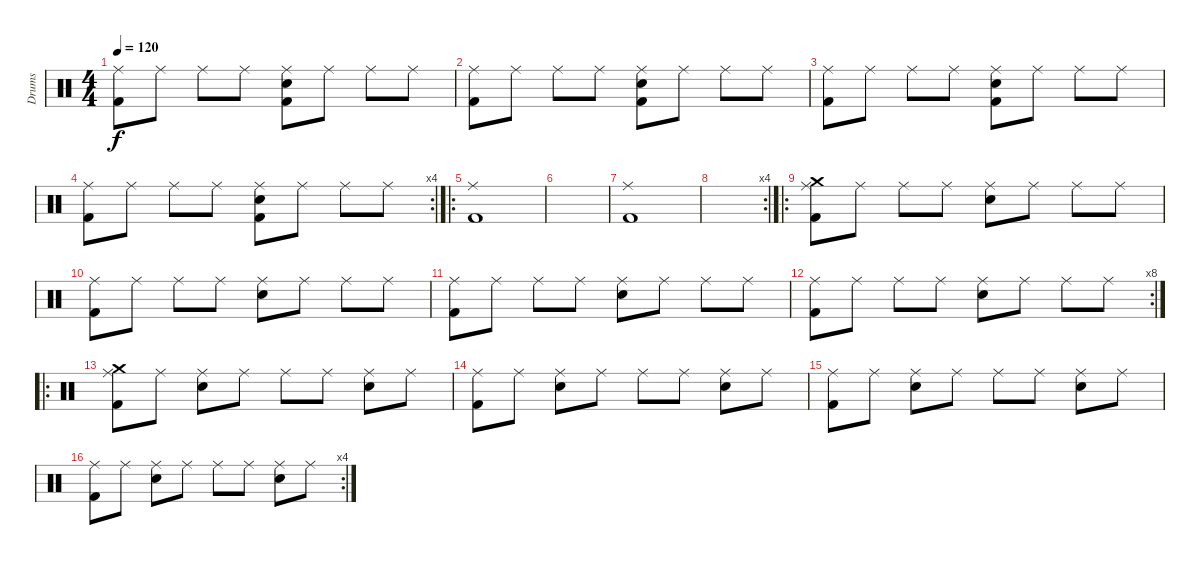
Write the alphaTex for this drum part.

\track ("Drums" "Drums") {instrument percussion}
\staff {score}
\articulation defaults
\ts (4 4)
\tempo 120
\clef neutral
\ks c
("Ride (middle)" "Kick (hit) 2").8{dy f} "Ride (middle)".8 "Ride (middle)".8 "Ride (middle)".8 ("Ride (middle)" "Electric Snare (hit)" "Kick (hit) 2").8 "Ride (middle)".8 "Ride (middle)".8 "Ride (middle)".8 |
("Ride (middle)" "Kick (hit) 2").8 "Ride (middle)".8 "Ride (middle)".8 "Ride (middle)".8 ("Ride (middle)" "Electric Snare (hit)" "Kick (hit) 2").8 "Ride (middle)".8 "Ride (middle)".8 "Ride (middle)".8 |
("Ride (middle)" "Kick (hit) 2").8 "Ride (middle)".8 "Ride (middle)".8 "Ride (middle)".8 ("Ride (middle)" "Electric Snare (hit)" "Kick (hit) 2").8 "Ride (middle)".8 "Ride (middle)".8 "Ride (middle)".8 |
\rc 4
("Ride (middle)" "Kick (hit) 2").8 "Ride (middle)".8 "Ride (middle)".8 "Ride (middle)".8 ("Ride (middle)" "Electric Snare (hit)" "Kick (hit) 2").8 "Ride (middle)".8 "Ride (middle)".8 "Ride (middle)".8 |
\ro
("Ride (middle)" "Kick (hit) 2").1 |
|
("Ride (middle)" "Kick (hit) 2").1 |
\rc 4
|
\ro
("Crash medium (hit)" "Ride (middle)" "Kick (hit) 2").8 "Ride (middle)".8 "Ride (middle)".8 "Ride (middle)".8 ("Ride (middle)" "Electric Snare (hit)").8 "Ride (middle)".8 "Ride (middle)".8 "Ride (middle)".8 |
("Ride (middle)" "Kick (hit) 2").8 "Ride (middle)".8 "Ride (middle)".8 "Ride (middle)".8 ("Ride (middle)" "Electric Snare (hit)").8 "Ride (middle)".8 "Ride (middle)".8 "Ride (middle)".8 |
("Ride (middle)" "Kick (hit) 2").8 "Ride (middle)".8 "Ride (middle)".8 "Ride (middle)".8 ("Ride (middle)" "Electric Snare (hit)").8 "Ride (middle)".8 "Ride (middle)".8 "Ride (middle)".8 |
\rc 8
("Ride (middle)" "Kick (hit) 2").8 "Ride (middle)".8 "Ride (middle)".8 "Ride (middle)".8 ("Ride (middle)" "Electric Snare (hit)").8 "Ride (middle)".8 "Ride (middle)".8 "Ride (middle)".8 |
\ro
("Crash medium (hit)" "Ride (middle)" "Kick (hit) 2").8 "Ride (middle)".8 ("Ride (middle)" "Electric Snare (hit)").8 "Ride (middle)".8 "Ride (middle)".8 "Ride (middle)".8 ("Ride (middle)" "Electric Snare (hit)").8 "Ride (middle)".8 |
("Ride (middle)" "Kick (hit) 2").8 "Ride (middle)".8 ("Ride (middle)" "Electric Snare (hit)").8 "Ride (middle)".8 "Ride (middle)".8 "Ride (middle)".8 ("Ride (middle)" "Electric Snare (hit)").8 "Ride (middle)".8 |
("Ride (middle)" "Kick (hit) 2").8 "Ride (middle)".8 ("Ride (middle)" "Electric Snare (hit)").8 "Ride (middle)".8 "Ride (middle)".8 "Ride (middle)".8 ("Ride (middle)" "Electric Snare (hit)").8 "Ride (middle)".8 |
\rc 4
("Ride (middle)" "Kick (hit) 2").8 "Ride (middle)".8 ("Ride (middle)" "Electric Snare (hit)").8 "Ride (middle)".8 "Ride (middle)".8 "Ride (middle)".8 ("Ride (middle)" "Electric Snare (hit)").8 "Ride (middle)".8
